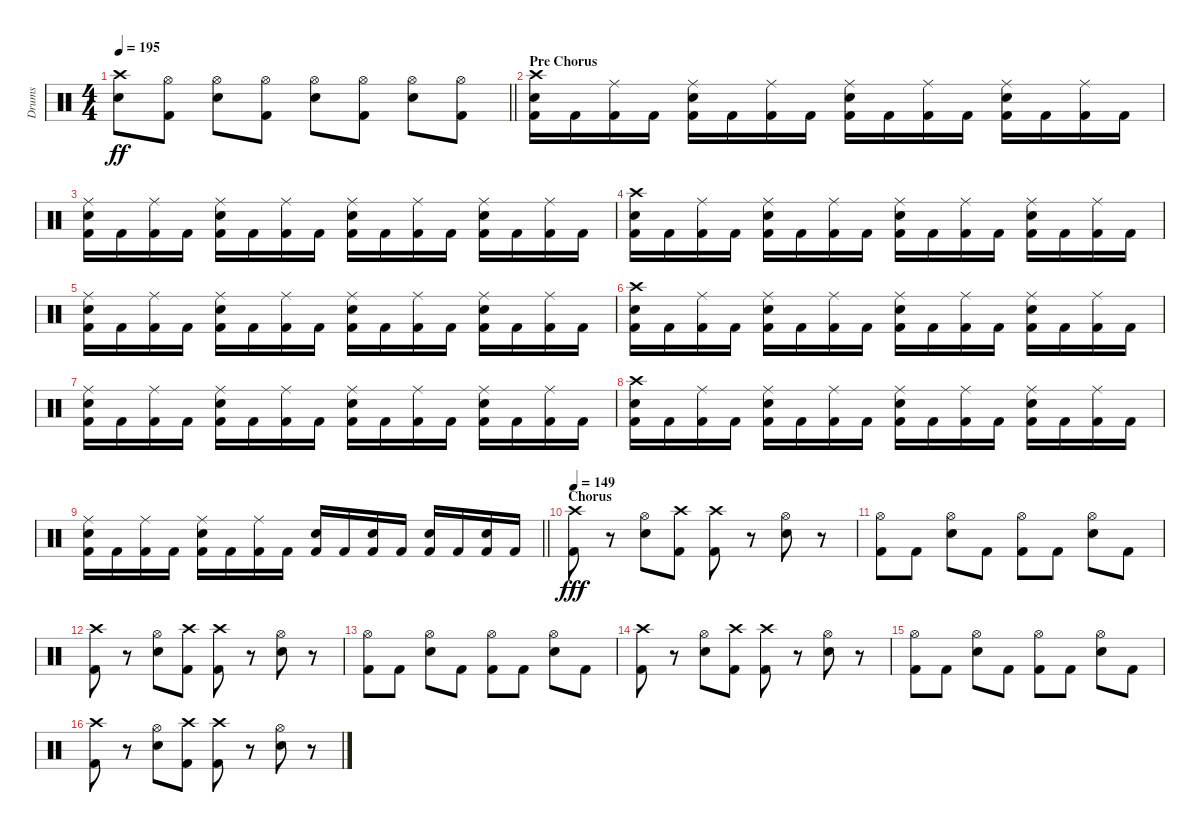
\track ("Drums" "Drums") {instrument percussion}
\staff {score}
\articulation defaults
\ts (4 4)
\tempo 195
\clef neutral
\barLineRight lightlight
\ks c
("Crash high (hit)" "Snare (hit) 2").8{dy ff} ("Hi-Hat (open)" "Kick (hit) 2").8 ("Hi-Hat (open)" "Snare (hit) 2").8 ("Hi-Hat (open)" "Kick (hit) 2").8 ("Hi-Hat (open)" "Snare (hit) 2").8 ("Hi-Hat (open)" "Kick (hit) 2").8 ("Hi-Hat (open)" "Snare (hit) 2").8 ("Hi-Hat (open)" "Kick (hit) 2").8 |
\section ("" "Pre Chorus")
("Crash high (hit)" "Snare (hit) 2" "Kick (hit) 2").16 "Kick (hit) 2".16 ("Ride (middle)" "Kick (hit) 2").16 "Kick (hit) 2".16 ("Ride (middle)" "Snare (hit) 2" "Kick (hit) 2").16 "Kick (hit) 2".16 ("Ride (middle)" "Kick (hit) 2").16 "Kick (hit) 2".16 ("Ride (middle)" "Snare (hit) 2" "Kick (hit) 2").16 "Kick (hit) 2".16 ("Ride (middle)" "Kick (hit) 2").16 "Kick (hit) 2".16 ("Ride (middle)" "Snare (hit) 2" "Kick (hit) 2").16 "Kick (hit) 2".16 ("Ride (middle)" "Kick (hit) 2").16 "Kick (hit) 2".16 |
("Ride (middle)" "Snare (hit) 2" "Kick (hit) 2").16 "Kick (hit) 2".16 ("Ride (middle)" "Kick (hit) 2").16 "Kick (hit) 2".16 ("Ride (middle)" "Snare (hit) 2" "Kick (hit) 2").16 "Kick (hit) 2".16 ("Ride (middle)" "Kick (hit) 2").16 "Kick (hit) 2".16 ("Ride (middle)" "Snare (hit) 2" "Kick (hit) 2").16 "Kick (hit) 2".16 ("Ride (middle)" "Kick (hit) 2").16 "Kick (hit) 2".16 ("Ride (middle)" "Snare (hit) 2" "Kick (hit) 2").16 "Kick (hit) 2".16 ("Ride (middle)" "Kick (hit) 2").16 "Kick (hit) 2".16 |
("Crash high (hit)" "Snare (hit) 2" "Kick (hit) 2").16 "Kick (hit) 2".16 ("Ride (middle)" "Kick (hit) 2").16 "Kick (hit) 2".16 ("Ride (middle)" "Snare (hit) 2" "Kick (hit) 2").16 "Kick (hit) 2".16 ("Ride (middle)" "Kick (hit) 2").16 "Kick (hit) 2".16 ("Ride (middle)" "Snare (hit) 2" "Kick (hit) 2").16 "Kick (hit) 2".16 ("Ride (middle)" "Kick (hit) 2").16 "Kick (hit) 2".16 ("Ride (middle)" "Snare (hit) 2" "Kick (hit) 2").16 "Kick (hit) 2".16 ("Ride (middle)" "Kick (hit) 2").16 "Kick (hit) 2".16 |
("Ride (middle)" "Snare (hit) 2" "Kick (hit) 2").16 "Kick (hit) 2".16 ("Ride (middle)" "Kick (hit) 2").16 "Kick (hit) 2".16 ("Ride (middle)" "Snare (hit) 2" "Kick (hit) 2").16 "Kick (hit) 2".16 ("Ride (middle)" "Kick (hit) 2").16 "Kick (hit) 2".16 ("Ride (middle)" "Snare (hit) 2" "Kick (hit) 2").16 "Kick (hit) 2".16 ("Ride (middle)" "Kick (hit) 2").16 "Kick (hit) 2".16 ("Ride (middle)" "Snare (hit) 2" "Kick (hit) 2").16 "Kick (hit) 2".16 ("Ride (middle)" "Kick (hit) 2").16 "Kick (hit) 2".16 |
("Crash high (hit)" "Snare (hit) 2" "Kick (hit) 2").16 "Kick (hit) 2".16 ("Ride (middle)" "Kick (hit) 2").16 "Kick (hit) 2".16 ("Ride (middle)" "Snare (hit) 2" "Kick (hit) 2").16 "Kick (hit) 2".16 ("Ride (middle)" "Kick (hit) 2").16 "Kick (hit) 2".16 ("Ride (middle)" "Snare (hit) 2" "Kick (hit) 2").16 "Kick (hit) 2".16 ("Ride (middle)" "Kick (hit) 2").16 "Kick (hit) 2".16 ("Ride (middle)" "Snare (hit) 2" "Kick (hit) 2").16 "Kick (hit) 2".16 ("Ride (middle)" "Kick (hit) 2").16 "Kick (hit) 2".16 |
("Ride (middle)" "Snare (hit) 2" "Kick (hit) 2").16 "Kick (hit) 2".16 ("Ride (middle)" "Kick (hit) 2").16 "Kick (hit) 2".16 ("Ride (middle)" "Snare (hit) 2" "Kick (hit) 2").16 "Kick (hit) 2".16 ("Ride (middle)" "Kick (hit) 2").16 "Kick (hit) 2".16 ("Ride (middle)" "Snare (hit) 2" "Kick (hit) 2").16 "Kick (hit) 2".16 ("Ride (middle)" "Kick (hit) 2").16 "Kick (hit) 2".16 ("Ride (middle)" "Snare (hit) 2" "Kick (hit) 2").16 "Kick (hit) 2".16 ("Ride (middle)" "Kick (hit) 2").16 "Kick (hit) 2".16 |
("Crash high (hit)" "Snare (hit) 2" "Kick (hit) 2").16 "Kick (hit) 2".16 ("Ride (middle)" "Kick (hit) 2").16 "Kick (hit) 2".16 ("Ride (middle)" "Snare (hit) 2" "Kick (hit) 2").16 "Kick (hit) 2".16 ("Ride (middle)" "Kick (hit) 2").16 "Kick (hit) 2".16 ("Ride (middle)" "Snare (hit) 2" "Kick (hit) 2").16 "Kick (hit) 2".16 ("Ride (middle)" "Kick (hit) 2").16 "Kick (hit) 2".16 ("Ride (middle)" "Snare (hit) 2" "Kick (hit) 2").16 "Kick (hit) 2".16 ("Ride (middle)" "Kick (hit) 2").16 "Kick (hit) 2".16 |
\barLineRight lightlight
("Ride (middle)" "Snare (hit) 2" "Kick (hit) 2").16 "Kick (hit) 2".16 ("Ride (middle)" "Kick (hit) 2").16 "Kick (hit) 2".16 ("Ride (middle)" "Snare (hit) 2" "Kick (hit) 2").16 "Kick (hit) 2".16 ("Ride (middle)" "Kick (hit) 2").16 "Kick (hit) 2".16 ("Snare (hit) 2" "Kick (hit) 2").16 "Kick (hit) 2".16 ("Snare (hit) 2" "Kick (hit) 2").16 "Kick (hit) 2".16 ("Snare (hit) 2" "Kick (hit) 2").16 "Kick (hit) 2".16 ("Snare (hit) 2" "Kick (hit) 2").16 "Kick (hit) 2".16 |
\section ("" "Chorus ")
\tempo 149
("Crash high (hit)" "Kick (hit) 2").8{dy fff} r.8 ("Hi-Hat (open)" "Snare (hit) 2").8 ("Crash high (hit)" "Kick (hit) 2").8 ("Crash high (hit)" "Kick (hit) 2").8 r.8 ("Hi-Hat (open)" "Snare (hit) 2").8 r.8 |
("Hi-Hat (open)" "Kick (hit) 2").8 "Kick (hit) 2".8 ("Hi-Hat (open)" "Snare (hit) 2").8 "Kick (hit) 2".8 ("Hi-Hat (open)" "Kick (hit) 2").8 "Kick (hit) 2".8 ("Hi-Hat (open)" "Snare (hit) 2").8 "Kick (hit) 2".8 |
("Crash high (hit)" "Kick (hit) 2").8 r.8 ("Hi-Hat (open)" "Snare (hit) 2").8 ("Crash high (hit)" "Kick (hit) 2").8 ("Crash high (hit)" "Kick (hit) 2").8 r.8 ("Hi-Hat (open)" "Snare (hit) 2").8 r.8 |
("Hi-Hat (open)" "Kick (hit) 2").8 "Kick (hit) 2".8 ("Hi-Hat (open)" "Snare (hit) 2").8 "Kick (hit) 2".8 ("Hi-Hat (open)" "Kick (hit) 2").8 "Kick (hit) 2".8 ("Hi-Hat (open)" "Snare (hit) 2").8 "Kick (hit) 2".8 |
("Crash high (hit)" "Kick (hit) 2").8 r.8 ("Hi-Hat (open)" "Snare (hit) 2").8 ("Crash high (hit)" "Kick (hit) 2").8 ("Crash high (hit)" "Kick (hit) 2").8 r.8 ("Hi-Hat (open)" "Snare (hit) 2").8 r.8 |
("Hi-Hat (open)" "Kick (hit) 2").8 "Kick (hit) 2".8 ("Hi-Hat (open)" "Snare (hit) 2").8 "Kick (hit) 2".8 ("Hi-Hat (open)" "Kick (hit) 2").8 "Kick (hit) 2".8 ("Hi-Hat (open)" "Snare (hit) 2").8 "Kick (hit) 2".8 |
("Crash high (hit)" "Kick (hit) 2").8 r.8 ("Hi-Hat (open)" "Snare (hit) 2").8 ("Crash high (hit)" "Kick (hit) 2").8 ("Crash high (hit)" "Kick (hit) 2").8 r.8 ("Hi-Hat (open)" "Snare (hit) 2").8 r.8
